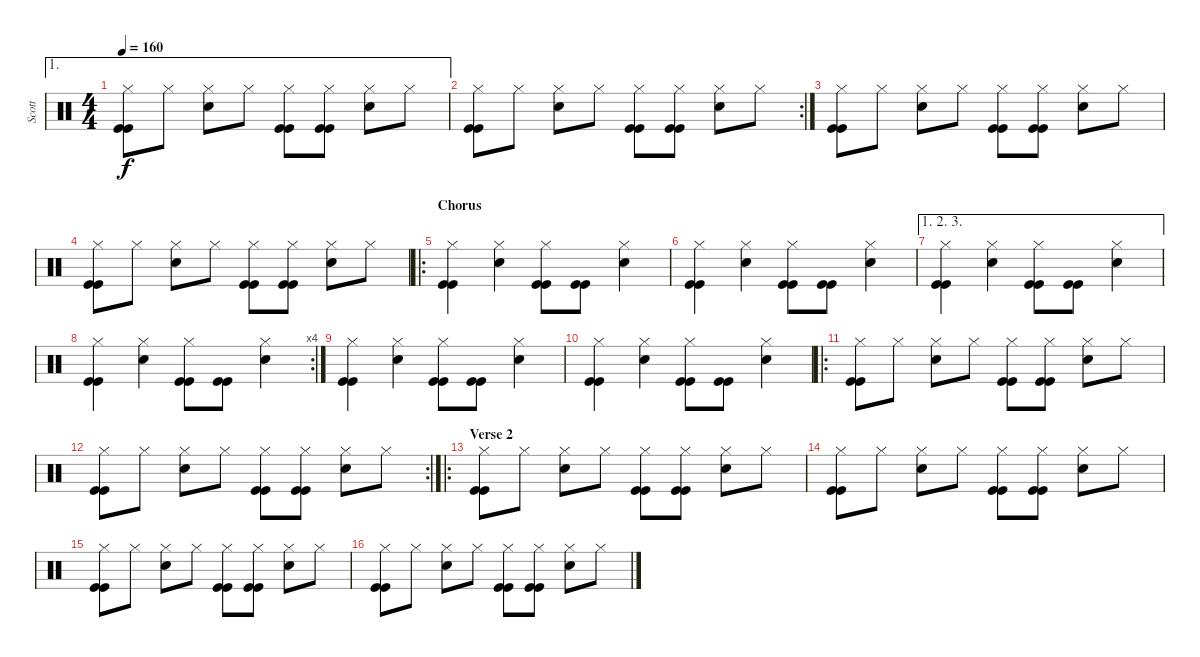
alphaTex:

\track ("Scott" "Scott") {instrument percussion}
\staff {score}
\articulation defaults
\ae 1
\ts (4 4)
\tempo 160
\clef neutral
\ks c
("Hi-Hat (closed)" "Kick (hit)" "Kick (hit)").8{dy f} "Hi-Hat (closed)".8 ("Hi-Hat (closed)" "Snare (hit) 2").8 "Hi-Hat (closed)".8 ("Hi-Hat (closed)" "Kick (hit)" "Kick (hit)").8 ("Hi-Hat (closed)" "Kick (hit)" "Kick (hit)").8 ("Hi-Hat (closed)" "Snare (hit) 2").8 "Hi-Hat (closed)".8 |
\rc 2
("Hi-Hat (closed)" "Kick (hit)" "Kick (hit)").8 "Hi-Hat (closed)".8 ("Hi-Hat (closed)" "Snare (hit) 2").8 "Hi-Hat (closed)".8 ("Hi-Hat (closed)" "Kick (hit)" "Kick (hit)").8 ("Hi-Hat (closed)" "Kick (hit)" "Kick (hit)").8 ("Hi-Hat (closed)" "Snare (hit) 2").8 "Hi-Hat (closed)".8 |
("Hi-Hat (closed)" "Kick (hit)" "Kick (hit)").8 "Hi-Hat (closed)".8 ("Hi-Hat (closed)" "Snare (hit) 2").8 "Hi-Hat (closed)".8 ("Hi-Hat (closed)" "Kick (hit)" "Kick (hit)").8 ("Hi-Hat (closed)" "Kick (hit)" "Kick (hit)").8 ("Hi-Hat (closed)" "Snare (hit) 2").8 "Hi-Hat (closed)".8 |
("Hi-Hat (closed)" "Kick (hit)" "Kick (hit)").8 "Hi-Hat (closed)".8 ("Hi-Hat (closed)" "Snare (hit) 2").8 "Hi-Hat (closed)".8 ("Hi-Hat (closed)" "Kick (hit)" "Kick (hit)").8 ("Hi-Hat (closed)" "Kick (hit)" "Kick (hit)").8 ("Hi-Hat (closed)" "Snare (hit) 2").8 "Hi-Hat (closed)".8 |
\ro
\section ("" "Chorus")
("Hi-Hat (closed)" "Kick (hit)" "Kick (hit)").4 ("Hi-Hat (closed)" "Snare (hit) 2").4 ("Hi-Hat (closed)" "Kick (hit)" "Kick (hit)").8 ("Kick (hit)" "Kick (hit)").8 ("Hi-Hat (closed)" "Snare (hit) 2").4 |
("Hi-Hat (closed)" "Kick (hit)" "Kick (hit)").4 ("Hi-Hat (closed)" "Snare (hit) 2").4 ("Hi-Hat (closed)" "Kick (hit)" "Kick (hit)").8 ("Kick (hit)" "Kick (hit)").8 ("Hi-Hat (closed)" "Snare (hit) 2").4 |
\ae (1 2 3)
("Hi-Hat (closed)" "Kick (hit)" "Kick (hit)").4 ("Hi-Hat (closed)" "Snare (hit) 2").4 ("Hi-Hat (closed)" "Kick (hit)" "Kick (hit)").8 ("Kick (hit)" "Kick (hit)").8 ("Hi-Hat (closed)" "Snare (hit) 2").4 |
\rc 4
("Hi-Hat (closed)" "Kick (hit)" "Kick (hit)").4 ("Hi-Hat (closed)" "Snare (hit) 2").4 ("Hi-Hat (closed)" "Kick (hit)" "Kick (hit)").8 ("Kick (hit)" "Kick (hit)").8 ("Hi-Hat (closed)" "Snare (hit) 2").4 |
("Hi-Hat (closed)" "Kick (hit)" "Kick (hit)").4 ("Hi-Hat (closed)" "Snare (hit) 2").4 ("Hi-Hat (closed)" "Kick (hit)" "Kick (hit)").8 ("Kick (hit)" "Kick (hit)").8 ("Hi-Hat (closed)" "Snare (hit) 2").4 |
("Hi-Hat (closed)" "Kick (hit)" "Kick (hit)").4 ("Hi-Hat (closed)" "Snare (hit) 2").4 ("Hi-Hat (closed)" "Kick (hit)" "Kick (hit)").8 ("Kick (hit)" "Kick (hit)").8 ("Hi-Hat (closed)" "Snare (hit) 2").4 |
\ro
("Hi-Hat (closed)" "Kick (hit)" "Kick (hit)").8 "Hi-Hat (closed)".8 ("Hi-Hat (closed)" "Snare (hit) 2").8 "Hi-Hat (closed)".8 ("Hi-Hat (closed)" "Kick (hit)" "Kick (hit)").8 ("Hi-Hat (closed)" "Kick (hit)" "Kick (hit)").8 ("Hi-Hat (closed)" "Snare (hit) 2").8 "Hi-Hat (closed)".8 |
\rc 2
("Hi-Hat (closed)" "Kick (hit)" "Kick (hit)").8 "Hi-Hat (closed)".8 ("Hi-Hat (closed)" "Snare (hit) 2").8 "Hi-Hat (closed)".8 ("Hi-Hat (closed)" "Kick (hit)" "Kick (hit)").8 ("Hi-Hat (closed)" "Kick (hit)" "Kick (hit)").8 ("Hi-Hat (closed)" "Snare (hit) 2").8 "Hi-Hat (closed)".8 |
\ro
\section ("" "Verse 2")
("Hi-Hat (closed)" "Kick (hit)" "Kick (hit)").8 "Hi-Hat (closed)".8 ("Hi-Hat (closed)" "Snare (hit) 2").8 "Hi-Hat (closed)".8 ("Hi-Hat (closed)" "Kick (hit)" "Kick (hit)").8 ("Hi-Hat (closed)" "Kick (hit)" "Kick (hit)").8 ("Hi-Hat (closed)" "Snare (hit) 2").8 "Hi-Hat (closed)".8 |
("Hi-Hat (closed)" "Kick (hit)" "Kick (hit)").8 "Hi-Hat (closed)".8 ("Hi-Hat (closed)" "Snare (hit) 2").8 "Hi-Hat (closed)".8 ("Hi-Hat (closed)" "Kick (hit)" "Kick (hit)").8 ("Hi-Hat (closed)" "Kick (hit)" "Kick (hit)").8 ("Hi-Hat (closed)" "Snare (hit) 2").8 "Hi-Hat (closed)".8 |
("Hi-Hat (closed)" "Kick (hit)" "Kick (hit)").8 "Hi-Hat (closed)".8 ("Hi-Hat (closed)" "Snare (hit) 2").8 "Hi-Hat (closed)".8 ("Hi-Hat (closed)" "Kick (hit)" "Kick (hit)").8 ("Hi-Hat (closed)" "Kick (hit)" "Kick (hit)").8 ("Hi-Hat (closed)" "Snare (hit) 2").8 "Hi-Hat (closed)".8 |
("Hi-Hat (closed)" "Kick (hit)" "Kick (hit)").8 "Hi-Hat (closed)".8 ("Hi-Hat (closed)" "Snare (hit) 2").8 "Hi-Hat (closed)".8 ("Hi-Hat (closed)" "Kick (hit)" "Kick (hit)").8 ("Hi-Hat (closed)" "Kick (hit)" "Kick (hit)").8 ("Hi-Hat (closed)" "Snare (hit) 2").8 "Hi-Hat (closed)".8
